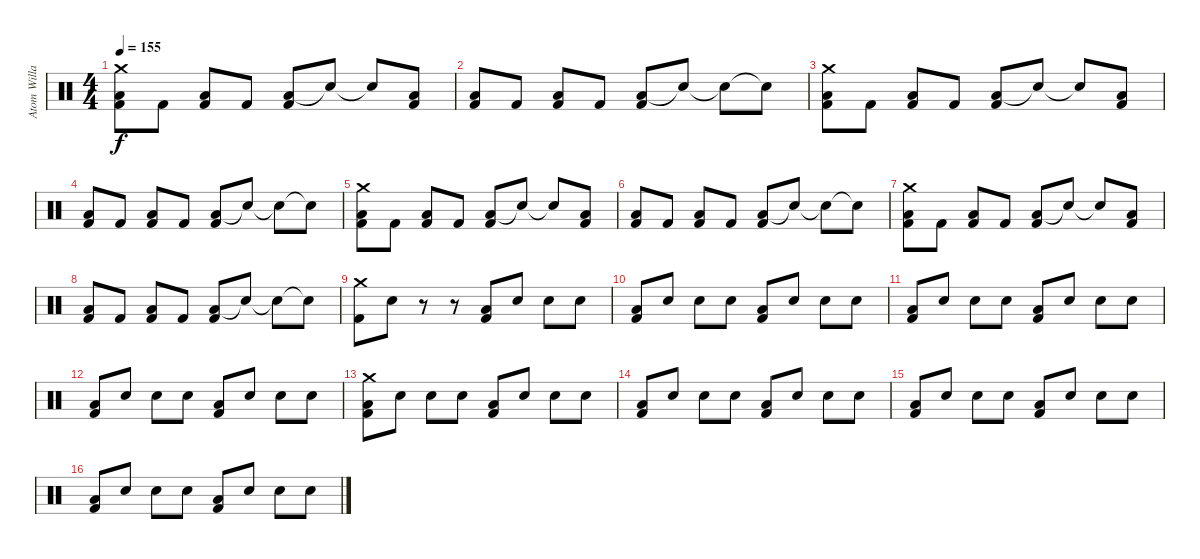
\track ("Atom Willard - Drums" "Atom Willa") {instrument percussion}
\staff {score}
\articulation defaults
\ts (4 4)
\tempo 155
\clef neutral
\ks c
("Crash medium (hit)" "Low Tom (hit)" "Kick (hit) 2").8{dy f} "Kick (hit) 2".8 ("Low Tom (hit)" "Kick (hit) 2").8 "Kick (hit) 2".8 ("Low Tom (hit)" "Kick (hit) 2").8 "Snare (hit)"{t}.8 "Snare (hit)"{t}.8 ("Low Tom (hit)" "Kick (hit) 2").8 |
("Low Tom (hit)" "Kick (hit) 2").8 "Kick (hit) 2".8 ("Low Tom (hit)" "Kick (hit) 2").8 "Kick (hit) 2".8 ("Low Tom (hit)" "Kick (hit) 2").8 "Snare (hit)"{t}.8 "Snare (hit)"{t}.8 "Snare (hit)"{t}.8 |
("Crash medium (hit)" "Low Tom (hit)" "Kick (hit) 2").8 "Kick (hit) 2".8 ("Low Tom (hit)" "Kick (hit) 2").8 "Kick (hit) 2".8 ("Low Tom (hit)" "Kick (hit) 2").8 "Snare (hit)"{t}.8 "Snare (hit)"{t}.8 ("Low Tom (hit)" "Kick (hit) 2").8 |
("Low Tom (hit)" "Kick (hit) 2").8 "Kick (hit) 2".8 ("Low Tom (hit)" "Kick (hit) 2").8 "Kick (hit) 2".8 ("Low Tom (hit)" "Kick (hit) 2").8 "Snare (hit)"{t}.8 "Snare (hit)"{t}.8 "Snare (hit)"{t}.8 |
("Crash medium (hit)" "Low Tom (hit)" "Kick (hit) 2").8 "Kick (hit) 2".8 ("Low Tom (hit)" "Kick (hit) 2").8 "Kick (hit) 2".8 ("Low Tom (hit)" "Kick (hit) 2").8 "Snare (hit)"{t}.8 "Snare (hit)"{t}.8 ("Low Tom (hit)" "Kick (hit) 2").8 |
("Low Tom (hit)" "Kick (hit) 2").8 "Kick (hit) 2".8 ("Low Tom (hit)" "Kick (hit) 2").8 "Kick (hit) 2".8 ("Low Tom (hit)" "Kick (hit) 2").8 "Snare (hit)"{t}.8 "Snare (hit)"{t}.8 "Snare (hit)"{t}.8 |
("Crash medium (hit)" "Low Tom (hit)" "Kick (hit) 2").8 "Kick (hit) 2".8 ("Low Tom (hit)" "Kick (hit) 2").8 "Kick (hit) 2".8 ("Low Tom (hit)" "Kick (hit) 2").8 "Snare (hit)"{t}.8 "Snare (hit)"{t}.8 ("Low Tom (hit)" "Kick (hit) 2").8 |
("Low Tom (hit)" "Kick (hit) 2").8 "Kick (hit) 2".8 ("Low Tom (hit)" "Kick (hit) 2").8 "Kick (hit) 2".8 ("Low Tom (hit)" "Kick (hit) 2").8 "Snare (hit)"{t}.8 "Snare (hit)"{t}.8 "Snare (hit)"{t}.8 |
("Crash medium (hit)" "Kick (hit) 2").8 "Snare (hit)".8 r.8 r.8 ("Kick (hit) 2" "Low Tom (hit)").8 "Snare (hit)".8 "Snare (hit)".8 "Snare (hit)".8 |
("Kick (hit) 2" "Low Tom (hit)").8 "Snare (hit)".8 "Snare (hit)".8 "Snare (hit)".8 ("Kick (hit) 2" "Low Tom (hit)").8 "Snare (hit)".8 "Snare (hit)".8 "Snare (hit)".8 |
("Kick (hit) 2" "Low Tom (hit)").8 "Snare (hit)".8 "Snare (hit)".8 "Snare (hit)".8 ("Kick (hit) 2" "Low Tom (hit)").8 "Snare (hit)".8 "Snare (hit)".8 "Snare (hit)".8 |
("Kick (hit) 2" "Low Tom (hit)").8 "Snare (hit)".8 "Snare (hit)".8 "Snare (hit)".8 ("Kick (hit) 2" "Low Tom (hit)").8 "Snare (hit)".8 "Snare (hit)".8 "Snare (hit)".8 |
("Crash medium (hit)" "Kick (hit) 2" "Low Tom (hit)").8 "Snare (hit)".8 "Snare (hit)".8 "Snare (hit)".8 ("Kick (hit) 2" "Low Tom (hit)").8 "Snare (hit)".8 "Snare (hit)".8 "Snare (hit)".8 |
("Kick (hit) 2" "Low Tom (hit)").8 "Snare (hit)".8 "Snare (hit)".8 "Snare (hit)".8 ("Kick (hit) 2" "Low Tom (hit)").8 "Snare (hit)".8 "Snare (hit)".8 "Snare (hit)".8 |
("Kick (hit) 2" "Low Tom (hit)").8 "Snare (hit)".8 "Snare (hit)".8 "Snare (hit)".8 ("Kick (hit) 2" "Low Tom (hit)").8 "Snare (hit)".8 "Snare (hit)".8 "Snare (hit)".8 |
("Kick (hit) 2" "Low Tom (hit)").8 "Snare (hit)".8 "Snare (hit)".8 "Snare (hit)".8 ("Kick (hit) 2" "Low Tom (hit)").8 "Snare (hit)".8 "Snare (hit)".8 "Snare (hit)".8
